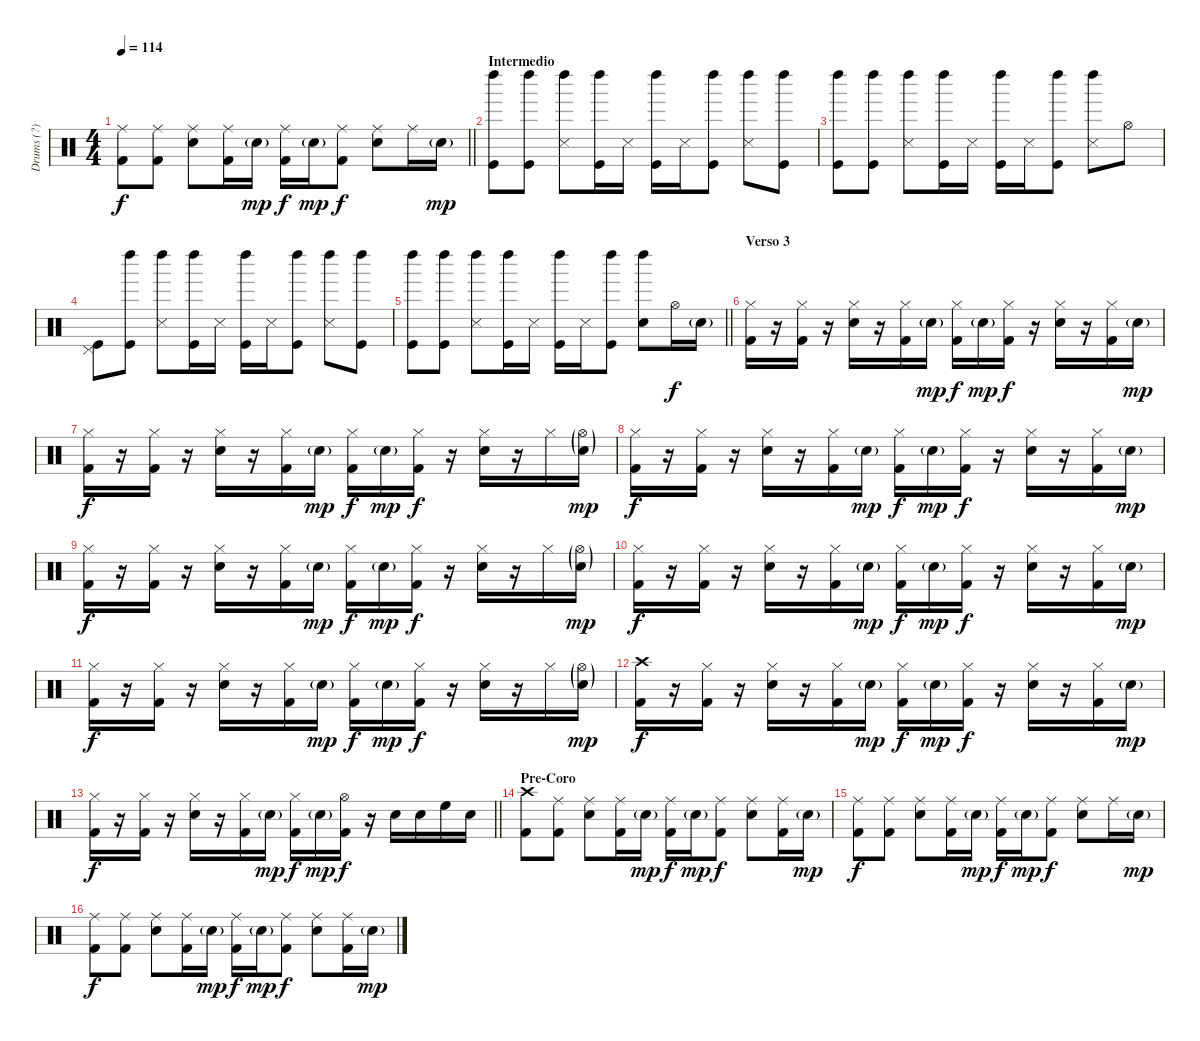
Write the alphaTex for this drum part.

\track ("Drums (?)" "Drums (?)") {instrument percussion}
\staff {score}
\articulation defaults
\ts (4 4)
\tempo 114
\clef neutral
\barLineRight lightlight
\ks c
("Ride (middle)" "Kick (hit) 2").8{dy f} ("Ride (middle)" "Kick (hit) 2").8 ("Ride (middle)" "Snare (hit) 2").8 ("Ride (middle)" "Kick (hit) 2").16 "Snare (hit) 2"{g}.16{dy mp} ("Ride (middle)" "Kick (hit) 2").16{dy f} "Snare (hit) 2"{g}.16{dy mp} ("Ride (middle)" "Kick (hit) 2").8{dy f} ("Ride (middle)" "Snare (hit) 2").8 "Ride (middle)".16 "Snare (hit) 2"{g}.16{dy mp} |
\section ("" "Intermedio")
("Left Maraca (hit)" "Kick (hit)").8 ("Left Maraca (hit)" "Kick (hit)").8 ("Left Maraca (hit)" "Snare (side stick) 3").8 ("Left Maraca (hit)" "Kick (hit)").16 "Snare (side stick) 3".16 ("Left Maraca (hit)" "Kick (hit)").16 "Snare (side stick) 3".16 ("Left Maraca (hit)" "Kick (hit)").8 ("Left Maraca (hit)" "Snare (side stick) 3").8 ("Left Maraca (hit)" "Kick (hit)").8 |
("Left Maraca (hit)" "Kick (hit)").8 ("Left Maraca (hit)" "Kick (hit)").8 ("Left Maraca (hit)" "Snare (side stick) 3").8 ("Left Maraca (hit)" "Kick (hit)").16 "Snare (side stick) 3".16 ("Left Maraca (hit)" "Kick (hit)").16 "Snare (side stick) 3".16 ("Left Maraca (hit)" "Kick (hit)").8 ("Left Maraca (hit)" "Snare (side stick) 3").8 "Hi-Hat (open)".8 |
("Pedal Hi-Hat (hit)" "Kick (hit)").8 ("Left Maraca (hit)" "Kick (hit)").8 ("Left Maraca (hit)" "Snare (side stick) 3").8 ("Left Maraca (hit)" "Kick (hit)").16 "Snare (side stick) 3".16 ("Left Maraca (hit)" "Kick (hit)").16 "Snare (side stick) 3".16 ("Left Maraca (hit)" "Kick (hit)").8 ("Left Maraca (hit)" "Snare (side stick) 3").8 ("Left Maraca (hit)" "Kick (hit)").8 |
\barLineRight lightlight
("Left Maraca (hit)" "Kick (hit)").8 ("Left Maraca (hit)" "Kick (hit)").8 ("Left Maraca (hit)" "Snare (side stick) 3").8 ("Left Maraca (hit)" "Kick (hit)").16 "Snare (side stick) 3".16 ("Left Maraca (hit)" "Kick (hit)").16 "Snare (side stick) 3".16 ("Left Maraca (hit)" "Kick (hit)").8 ("Left Maraca (hit)" "Snare (hit) 2").8 "Hi-Hat (open)".16{dy f} "Snare (hit) 2"{g}.16 |
\section ("" "Verso 3")
("Hi-Hat (closed)" "Kick (hit) 2").16 r.16 ("Hi-Hat (closed)" "Kick (hit) 2").16 r.16 ("Hi-Hat (closed)" "Snare (hit) 2").16 r.16 ("Hi-Hat (closed)" "Kick (hit) 2").16 "Snare (hit) 2"{g}.16{dy mp} ("Hi-Hat (closed)" "Kick (hit) 2").16{dy f} "Snare (hit) 2"{g}.16{dy mp} ("Hi-Hat (closed)" "Kick (hit) 2").16{dy f} r.16 ("Hi-Hat (closed)" "Snare (hit) 2").16 r.16 ("Hi-Hat (closed)" "Kick (hit) 2").16 "Snare (hit) 2"{g}.16{dy mp} |
("Hi-Hat (closed)" "Kick (hit) 2").16{dy f} r.16 ("Hi-Hat (closed)" "Kick (hit) 2").16 r.16 ("Hi-Hat (closed)" "Snare (hit) 2").16 r.16 ("Hi-Hat (closed)" "Kick (hit) 2").16 "Snare (hit) 2"{g}.16{dy mp} ("Hi-Hat (closed)" "Kick (hit) 2").16{dy f} "Snare (hit) 2"{g}.16{dy mp} ("Hi-Hat (closed)" "Kick (hit) 2").16{dy f} r.16 ("Hi-Hat (closed)" "Snare (hit) 2").16 r.16 "Hi-Hat (closed)".16 ("Hi-Hat (open)"{g} "Snare (hit) 2"{g}).16{dy mp} |
("Hi-Hat (closed)" "Kick (hit) 2").16{dy f} r.16 ("Hi-Hat (closed)" "Kick (hit) 2").16 r.16 ("Hi-Hat (closed)" "Snare (hit) 2").16 r.16 ("Hi-Hat (closed)" "Kick (hit) 2").16 "Snare (hit) 2"{g}.16{dy mp} ("Hi-Hat (closed)" "Kick (hit) 2").16{dy f} "Snare (hit) 2"{g}.16{dy mp} ("Hi-Hat (closed)" "Kick (hit) 2").16{dy f} r.16 ("Hi-Hat (closed)" "Snare (hit) 2").16 r.16 ("Hi-Hat (closed)" "Kick (hit) 2").16 "Snare (hit) 2"{g}.16{dy mp} |
("Hi-Hat (closed)" "Kick (hit) 2").16{dy f} r.16 ("Hi-Hat (closed)" "Kick (hit) 2").16 r.16 ("Hi-Hat (closed)" "Snare (hit) 2").16 r.16 ("Hi-Hat (closed)" "Kick (hit) 2").16 "Snare (hit) 2"{g}.16{dy mp} ("Hi-Hat (closed)" "Kick (hit) 2").16{dy f} "Snare (hit) 2"{g}.16{dy mp} ("Hi-Hat (closed)" "Kick (hit) 2").16{dy f} r.16 ("Hi-Hat (closed)" "Snare (hit) 2").16 r.16 "Hi-Hat (closed)".16 ("Hi-Hat (open)"{g} "Snare (hit) 2"{g}).16{dy mp} |
("Hi-Hat (closed)" "Kick (hit) 2").16{dy f} r.16 ("Hi-Hat (closed)" "Kick (hit) 2").16 r.16 ("Hi-Hat (closed)" "Snare (hit) 2").16 r.16 ("Hi-Hat (closed)" "Kick (hit) 2").16 "Snare (hit) 2"{g}.16{dy mp} ("Hi-Hat (closed)" "Kick (hit) 2").16{dy f} "Snare (hit) 2"{g}.16{dy mp} ("Hi-Hat (closed)" "Kick (hit) 2").16{dy f} r.16 ("Hi-Hat (closed)" "Snare (hit) 2").16 r.16 ("Hi-Hat (closed)" "Kick (hit) 2").16 "Snare (hit) 2"{g}.16{dy mp} |
("Hi-Hat (closed)" "Kick (hit) 2").16{dy f} r.16 ("Hi-Hat (closed)" "Kick (hit) 2").16 r.16 ("Hi-Hat (closed)" "Snare (hit) 2").16 r.16 ("Hi-Hat (closed)" "Kick (hit) 2").16 "Snare (hit) 2"{g}.16{dy mp} ("Hi-Hat (closed)" "Kick (hit) 2").16{dy f} "Snare (hit) 2"{g}.16{dy mp} ("Hi-Hat (closed)" "Kick (hit) 2").16{dy f} r.16 ("Hi-Hat (closed)" "Snare (hit) 2").16 r.16 "Hi-Hat (closed)".16 ("Hi-Hat (open)"{g} "Snare (hit) 2"{g}).16{dy mp} |
("Crash high (hit)" "Kick (hit) 2").16{dy f} r.16 ("Hi-Hat (closed)" "Kick (hit) 2").16 r.16 ("Hi-Hat (closed)" "Snare (hit) 2").16 r.16 ("Hi-Hat (closed)" "Kick (hit) 2").16 "Snare (hit) 2"{g}.16{dy mp} ("Hi-Hat (closed)" "Kick (hit) 2").16{dy f} "Snare (hit) 2"{g}.16{dy mp} ("Hi-Hat (closed)" "Kick (hit) 2").16{dy f} r.16 ("Hi-Hat (closed)" "Snare (hit) 2").16 r.16 ("Hi-Hat (closed)" "Kick (hit) 2").16 "Snare (hit) 2"{g}.16{dy mp} |
\barLineRight lightlight
("Hi-Hat (closed)" "Kick (hit) 2").16{dy f} r.16 ("Hi-Hat (closed)" "Kick (hit) 2").16 r.16 ("Hi-Hat (closed)" "Snare (hit) 2").16 r.16 ("Hi-Hat (closed)" "Kick (hit) 2").16 "Snare (hit) 2"{g}.16{dy mp} ("Hi-Hat (closed)" "Kick (hit) 2").16{dy f} "Snare (hit) 2"{g}.16{dy mp} ("Hi-Hat (open)" "Kick (hit) 2").16{dy f} r.16 "Snare (hit) 2".16 "Snare (hit) 2".16 "High Floor Tom (hit)".16 "Snare (hit) 2".16 |
\section ("" "Pre-Coro")
("Crash high (hit)" "Kick (hit) 2").8 ("Ride (middle)" "Kick (hit) 2").8 ("Ride (middle)" "Snare (hit) 2").8 ("Ride (middle)" "Kick (hit) 2").16 "Snare (hit) 2"{g}.16{dy mp} ("Ride (middle)" "Kick (hit) 2").16{dy f} "Snare (hit) 2"{g}.16{dy mp} ("Ride (middle)" "Kick (hit) 2").8{dy f} ("Ride (middle)" "Snare (hit) 2").8 ("Ride (middle)" "Kick (hit) 2").16 "Snare (hit) 2"{g}.16{dy mp} |
("Ride (middle)" "Kick (hit) 2").8{dy f} ("Ride (middle)" "Kick (hit) 2").8 ("Ride (middle)" "Snare (hit) 2").8 ("Ride (middle)" "Kick (hit) 2").16 "Snare (hit) 2"{g}.16{dy mp} ("Ride (middle)" "Kick (hit) 2").16{dy f} "Snare (hit) 2"{g}.16{dy mp} ("Ride (middle)" "Kick (hit) 2").8{dy f} ("Ride (middle)" "Snare (hit) 2").8 "Ride (middle)".16 "Snare (hit) 2"{g}.16{dy mp} |
("Ride (middle)" "Kick (hit) 2").8{dy f} ("Ride (middle)" "Kick (hit) 2").8 ("Ride (middle)" "Snare (hit) 2").8 ("Ride (middle)" "Kick (hit) 2").16 "Snare (hit) 2"{g}.16{dy mp} ("Ride (middle)" "Kick (hit) 2").16{dy f} "Snare (hit) 2"{g}.16{dy mp} ("Ride (middle)" "Kick (hit) 2").8{dy f} ("Ride (middle)" "Snare (hit) 2").8 ("Ride (middle)" "Kick (hit) 2").16 "Snare (hit) 2"{g}.16{dy mp}
